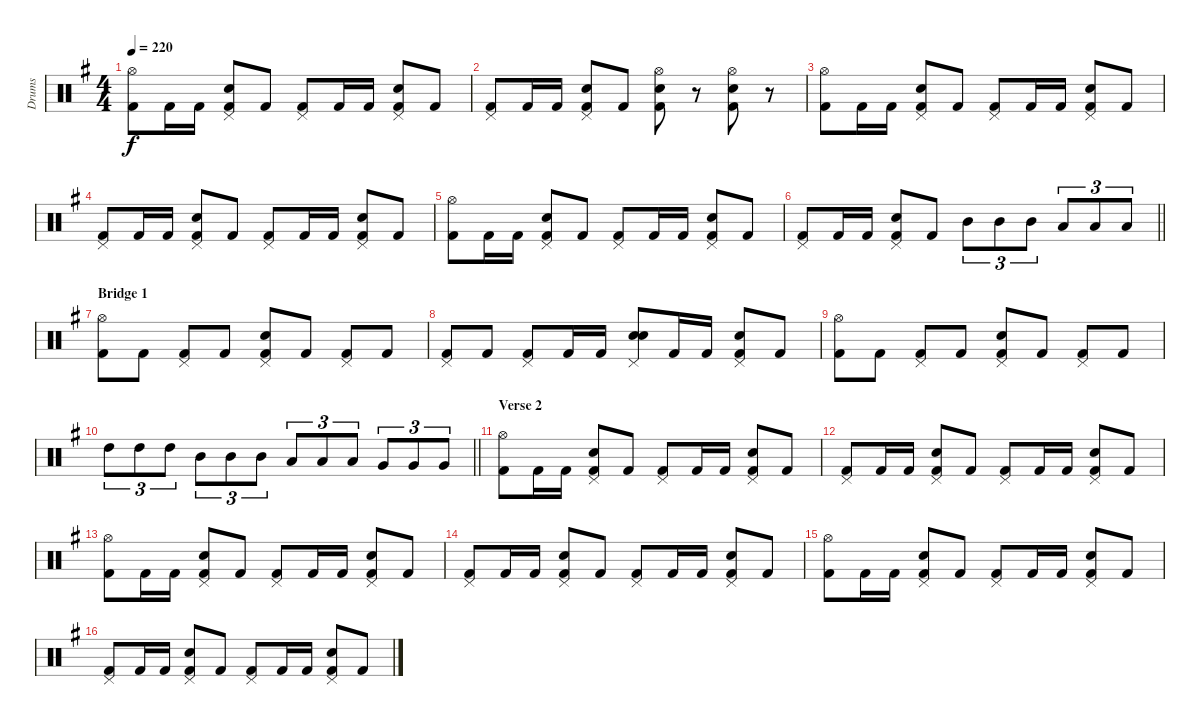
\track ("Drums" "Drums") {instrument percussion}
\staff {score}
\articulation defaults
\ts (4 4)
\tempo 220
\clef neutral
\ks g
("Hi-Hat (open)" "Kick (hit) 2").8{dy f} "Kick (hit) 2".16 "Kick (hit) 2".16 ("Pedal Hi-Hat (hit)" "Snare (hit) 2" "Kick (hit) 2").8 "Kick (hit) 2".8 ("Pedal Hi-Hat (hit)" "Kick (hit) 2").8 "Kick (hit) 2".16 "Kick (hit) 2".16 ("Pedal Hi-Hat (hit)" "Snare (hit) 2" "Kick (hit) 2").8 "Kick (hit) 2".8 |
("Pedal Hi-Hat (hit)" "Kick (hit) 2").8 "Kick (hit) 2".16 "Kick (hit) 2".16 ("Pedal Hi-Hat (hit)" "Snare (hit) 2" "Kick (hit) 2").8 "Kick (hit) 2".8 ("Hi-Hat (open)" "Snare (hit) 2" "Kick (hit) 2").8 r.8 ("Hi-Hat (open)" "Snare (hit) 2" "Kick (hit) 2").8 r.8 |
("Hi-Hat (open)" "Kick (hit) 2").8 "Kick (hit) 2".16 "Kick (hit) 2".16 ("Pedal Hi-Hat (hit)" "Snare (hit) 2" "Kick (hit) 2").8 "Kick (hit) 2".8 ("Pedal Hi-Hat (hit)" "Kick (hit) 2").8 "Kick (hit) 2".16 "Kick (hit) 2".16 ("Pedal Hi-Hat (hit)" "Snare (hit) 2" "Kick (hit) 2").8 "Kick (hit) 2".8 |
("Pedal Hi-Hat (hit)" "Kick (hit) 2").8 "Kick (hit) 2".16 "Kick (hit) 2".16 ("Pedal Hi-Hat (hit)" "Snare (hit) 2" "Kick (hit) 2").8 "Kick (hit) 2".8 ("Pedal Hi-Hat (hit)" "Kick (hit) 2").8 "Kick (hit) 2".16 "Kick (hit) 2".16 ("Pedal Hi-Hat (hit)" "Snare (hit) 2" "Kick (hit) 2").8 "Kick (hit) 2".8 |
("Hi-Hat (open)" "Kick (hit) 2").8 "Kick (hit) 2".16 "Kick (hit) 2".16 ("Pedal Hi-Hat (hit)" "Snare (hit) 2" "Kick (hit) 2").8 "Kick (hit) 2".8 ("Pedal Hi-Hat (hit)" "Kick (hit) 2").8 "Kick (hit) 2".16 "Kick (hit) 2".16 ("Pedal Hi-Hat (hit)" "Snare (hit) 2" "Kick (hit) 2").8 "Kick (hit) 2".8 |
\barLineRight lightlight
("Pedal Hi-Hat (hit)" "Kick (hit) 2").8 "Kick (hit) 2".16 "Kick (hit) 2".16 ("Pedal Hi-Hat (hit)" "Snare (hit) 2" "Kick (hit) 2").8 "Kick (hit) 2".8 "Mid Tom (hit)".8{tu (3 2)} "Mid Tom (hit)".8{tu (3 2)} "Mid Tom (hit)".8{tu (3 2)} "Low Tom (hit)".8{tu (3 2)} "Low Tom (hit)".8{tu (3 2)} "Low Tom (hit)".8{tu (3 2)} |
\section ("" "Bridge 1")
("Hi-Hat (open)" "Kick (hit) 2").8 "Kick (hit) 2".8 ("Pedal Hi-Hat (hit)" "Kick (hit) 2").8 "Kick (hit) 2".8 ("Pedal Hi-Hat (hit)" "Snare (hit) 2" "Kick (hit) 2").8 "Kick (hit) 2".8 ("Pedal Hi-Hat (hit)" "Kick (hit) 2").8 "Kick (hit) 2".8 |
("Pedal Hi-Hat (hit)" "Kick (hit) 2").8 "Kick (hit) 2".8 ("Pedal Hi-Hat (hit)" "Kick (hit) 2").8 "Kick (hit) 2".16 "Kick (hit) 2".16 ("Pedal Hi-Hat (hit)" "Snare (hit) 2" "Snare (hit) 2").8 "Kick (hit) 2".16 "Kick (hit) 2".16 ("Pedal Hi-Hat (hit)" "Snare (hit) 2" "Kick (hit) 2").8 "Kick (hit) 2".8 |
("Hi-Hat (open)" "Kick (hit) 2").8 "Kick (hit) 2".8 ("Pedal Hi-Hat (hit)" "Kick (hit) 2").8 "Kick (hit) 2".8 ("Pedal Hi-Hat (hit)" "Snare (hit) 2" "Kick (hit) 2").8 "Kick (hit) 2".8 ("Pedal Hi-Hat (hit)" "Kick (hit) 2").8 "Kick (hit) 2".8 |
\barLineRight lightlight "High Tom (hit)".8{tu (3 2)} "High Tom (hit)".8{tu (3 2)} "High Tom (hit)".8{tu (3 2)} "Mid Tom (hit)".8{tu (3 2)} "Mid Tom (hit)".8{tu (3 2)} "Mid Tom (hit)".8{tu (3 2)} "Low Tom (hit)".8{tu (3 2)} "Low Tom (hit)".8{tu (3 2)} "Low Tom (hit)".8{tu (3 2)} "Very Low Tom (hit)".8{tu (3 2)} "Very Low Tom (hit)".8{tu (3 2)} "Very Low Tom (hit)".8{tu (3 2)}
|
\section ("" "Verse 2")
("Hi-Hat (open)" "Kick (hit) 2").8 "Kick (hit) 2".16 "Kick (hit) 2".16 ("Pedal Hi-Hat (hit)" "Snare (hit) 2" "Kick (hit) 2").8 "Kick (hit) 2".8 ("Pedal Hi-Hat (hit)" "Kick (hit) 2").8 "Kick (hit) 2".16 "Kick (hit) 2".16 ("Pedal Hi-Hat (hit)" "Snare (hit) 2" "Kick (hit) 2").8 "Kick (hit) 2".8 |
("Pedal Hi-Hat (hit)" "Kick (hit) 2").8 "Kick (hit) 2".16 "Kick (hit) 2".16 ("Pedal Hi-Hat (hit)" "Snare (hit) 2" "Kick (hit) 2").8 "Kick (hit) 2".8 ("Pedal Hi-Hat (hit)" "Kick (hit) 2").8 "Kick (hit) 2".16 "Kick (hit) 2".16 ("Pedal Hi-Hat (hit)" "Snare (hit) 2" "Kick (hit) 2").8 "Kick (hit) 2".8 |
("Hi-Hat (open)" "Kick (hit) 2").8 "Kick (hit) 2".16 "Kick (hit) 2".16 ("Pedal Hi-Hat (hit)" "Snare (hit) 2" "Kick (hit) 2").8 "Kick (hit) 2".8 ("Pedal Hi-Hat (hit)" "Kick (hit) 2").8 "Kick (hit) 2".16 "Kick (hit) 2".16 ("Pedal Hi-Hat (hit)" "Snare (hit) 2" "Kick (hit) 2").8 "Kick (hit) 2".8 |
("Pedal Hi-Hat (hit)" "Kick (hit) 2").8 "Kick (hit) 2".16 "Kick (hit) 2".16 ("Pedal Hi-Hat (hit)" "Snare (hit) 2" "Kick (hit) 2").8 "Kick (hit) 2".8 ("Pedal Hi-Hat (hit)" "Kick (hit) 2").8 "Kick (hit) 2".16 "Kick (hit) 2".16 ("Pedal Hi-Hat (hit)" "Snare (hit) 2" "Kick (hit) 2").8 "Kick (hit) 2".8 |
("Hi-Hat (open)" "Kick (hit) 2").8 "Kick (hit) 2".16 "Kick (hit) 2".16 ("Pedal Hi-Hat (hit)" "Snare (hit) 2" "Kick (hit) 2").8 "Kick (hit) 2".8 ("Pedal Hi-Hat (hit)" "Kick (hit) 2").8 "Kick (hit) 2".16 "Kick (hit) 2".16 ("Pedal Hi-Hat (hit)" "Snare (hit) 2" "Kick (hit) 2").8 "Kick (hit) 2".8 |
("Pedal Hi-Hat (hit)" "Kick (hit) 2").8 "Kick (hit) 2".16 "Kick (hit) 2".16 ("Pedal Hi-Hat (hit)" "Snare (hit) 2" "Kick (hit) 2").8 "Kick (hit) 2".8 ("Pedal Hi-Hat (hit)" "Kick (hit) 2").8 "Kick (hit) 2".16 "Kick (hit) 2".16 ("Pedal Hi-Hat (hit)" "Snare (hit) 2" "Kick (hit) 2").8 "Kick (hit) 2".8
